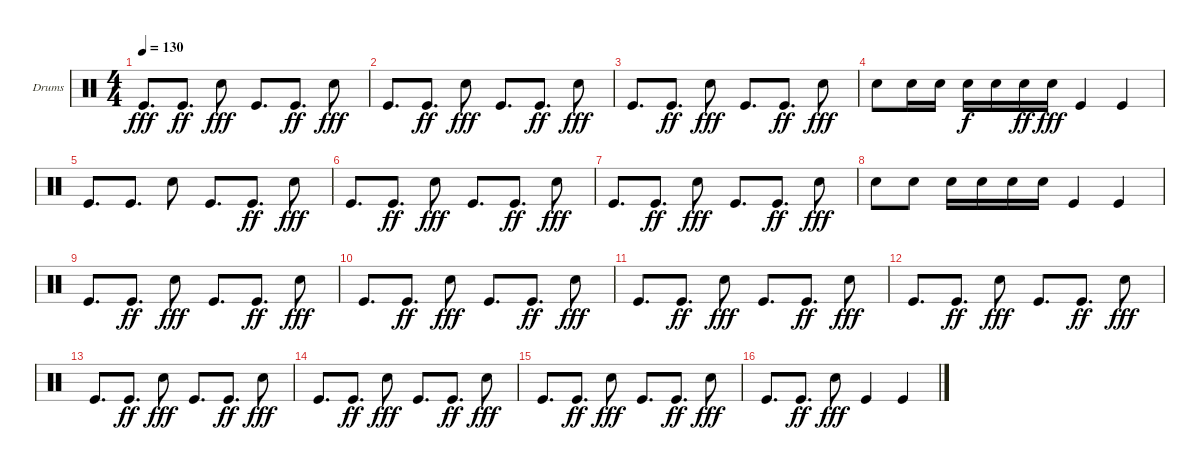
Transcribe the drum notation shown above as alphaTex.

\defaultSystemsLayout 4
\bracketExtendMode groupsimilarinstruments
\firstSystemTrackNameOrientation horizontal
\otherSystemsTrackNameOrientation horizontal
\track ("Helders" "Drums") {instrument percussion}
\staff {score}
\articulation defaults
\ts (4 4)
\tempo 130
\clef neutral
\ks c "Kick (hit)".8{d dy fff} "Kick (hit)".8{d dy ff} "Snare (hit) 2".8{dy fff} "Kick (hit)".8{d} "Kick (hit)".8{d dy ff} "Snare (hit) 2".8{dy fff}
|
"Kick (hit)".8{d} "Kick (hit)".8{d dy ff} "Snare (hit) 2".8{dy fff} "Kick (hit)".8{d} "Kick (hit)".8{d dy ff} "Snare (hit) 2".8{dy fff} |
"Kick (hit)".8{d} "Kick (hit)".8{d dy ff} "Snare (hit) 2".8{dy fff} "Kick (hit)".8{d} "Kick (hit)".8{d dy ff} "Snare (hit) 2".8{dy fff} |
"Snare (hit) 2".8 "Snare (hit) 2".16 "Snare (hit) 2".16 "Snare (hit) 2".16{dy f} "Snare (hit) 2".16 "Snare (hit) 2".16{dy ff} "Snare (hit) 2".16{dy fff} "Kick (hit)".4 "Kick (hit)".4 |
"Kick (hit)".8{d} "Kick (hit)".8{d} "Snare (hit) 2".8 "Kick (hit)".8{d} "Kick (hit)".8{d dy ff} "Snare (hit) 2".8{dy fff} |
"Kick (hit)".8{d} "Kick (hit)".8{d dy ff} "Snare (hit) 2".8{dy fff} "Kick (hit)".8{d} "Kick (hit)".8{d dy ff} "Snare (hit) 2".8{dy fff} |
"Kick (hit)".8{d} "Kick (hit)".8{d dy ff} "Snare (hit) 2".8{dy fff} "Kick (hit)".8{d} "Kick (hit)".8{d dy ff} "Snare (hit) 2".8{dy fff} |
"Snare (hit) 2".8 "Snare (hit) 2".8 "Snare (hit) 2".16 "Snare (hit) 2".16 "Snare (hit) 2".16 "Snare (hit) 2".16 "Kick (hit)".4 "Kick (hit)".4 |
"Kick (hit)".8{d} "Kick (hit)".8{d dy ff} "Snare (hit) 2".8{dy fff} "Kick (hit)".8{d} "Kick (hit)".8{d dy ff} "Snare (hit) 2".8{dy fff} |
"Kick (hit)".8{d} "Kick (hit)".8{d dy ff} "Snare (hit) 2".8{dy fff} "Kick (hit)".8{d} "Kick (hit)".8{d dy ff} "Snare (hit) 2".8{dy fff} |
"Kick (hit)".8{d} "Kick (hit)".8{d dy ff} "Snare (hit) 2".8{dy fff} "Kick (hit)".8{d} "Kick (hit)".8{d dy ff} "Snare (hit) 2".8{dy fff} |
"Kick (hit)".8{d} "Kick (hit)".8{d dy ff} "Snare (hit) 2".8{dy fff} "Kick (hit)".8{d} "Kick (hit)".8{d dy ff} "Snare (hit) 2".8{dy fff} |
"Kick (hit)".8{d} "Kick (hit)".8{d dy ff} "Snare (hit) 2".8{dy fff} "Kick (hit)".8{d} "Kick (hit)".8{d dy ff} "Snare (hit) 2".8{dy fff} |
"Kick (hit)".8{d} "Kick (hit)".8{d dy ff} "Snare (hit) 2".8{dy fff} "Kick (hit)".8{d} "Kick (hit)".8{d dy ff} "Snare (hit) 2".8{dy fff} |
"Kick (hit)".8{d} "Kick (hit)".8{d dy ff} "Snare (hit) 2".8{dy fff} "Kick (hit)".8{d} "Kick (hit)".8{d dy ff} "Snare (hit) 2".8{dy fff} |
"Kick (hit)".8{d} "Kick (hit)".8{d dy ff} "Snare (hit) 2".8{dy fff} "Kick (hit)".4 "Kick (hit)".4
